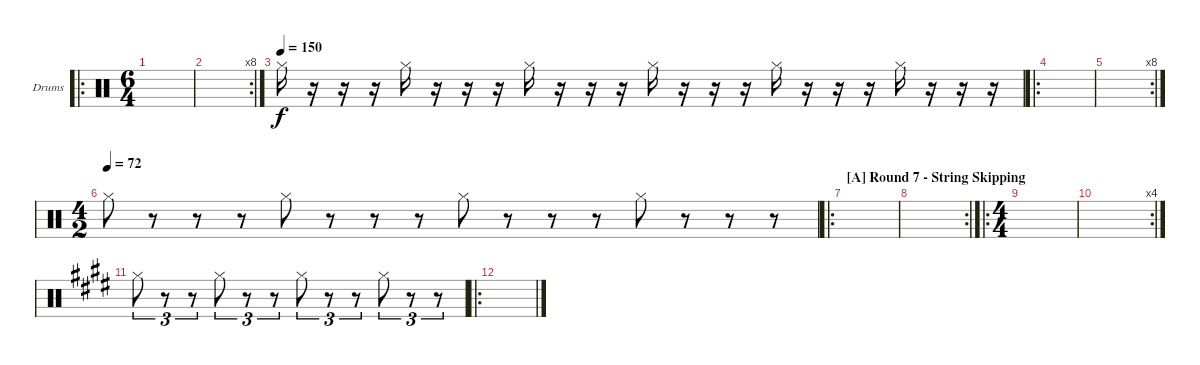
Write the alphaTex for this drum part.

\defaultSystemsLayout 4
\bracketExtendMode groupsimilarinstruments
\firstSystemTrackNameOrientation horizontal
\otherSystemsTrackNameOrientation horizontal
\track ("Drumkit" "Drums") {instrument percussion}
\staff {score}
\articulation defaults
\ro
\ts (6 4)
\tempo (120 hide)
\clef neutral
\scale
0.343284
\ks c
|
\rc 8
\scale
0.313433 |
\tempo (150)
"Hi-Hat (closed)".16{beam split} r.16{beam split} r.16{beam split} r.16{beam split} "Hi-Hat (closed)".16{beam split} r.16{beam split} r.16{beam split} r.16{beam split} "Hi-Hat (closed)".16{beam split} r.16{beam split} r.16{beam split} r.16{beam split} "Hi-Hat (closed)".16{beam split} r.16{beam split} r.16{beam split} r.16{beam split} "Hi-Hat (closed)".16{beam split} r.16{beam split} r.16{beam split} r.16{beam split} "Hi-Hat (closed)".16{beam split} r.16{beam split} r.16{beam split} r.16{beam split} |
\ro
\tempo (150 hide)
\scale
0.343284 |
\rc 8
\scale
0.269231 |
\ts (4 2)
\tempo 72
\scale
0.435897 "Hi-Hat (closed)".8 r.8 r.8 r.8 "Hi-Hat (closed)".8 r.8 r.8 r.8 "Hi-Hat (closed)".8 r.8 r.8 r.8 "Hi-Hat (closed)".8 r.8 r.8 r.8 |
\ro
\section ("A" "Round 7 - String Skipping")
\tempo (72 hide)
\scale
0.294872 |
\rc 2
\scale
0.2625 |
\ro
\ts (4 4)
\scale
0.475 |
\rc 4
\scale
0.2625 |
\scale
0.46383
\ks e "Hi-Hat (closed)".8{tu (3 2)}
r.8{tu (3 2)} r.8{tu (3 2)} "Hi-Hat (closed)".8{tu (3 2)} r.8{tu (3 2)} r.8{tu (3 2)} "Hi-Hat (closed)".8{tu (3 2)} r.8{tu (3 2)} r.8{tu (3 2)} "Hi-Hat (closed)".8{tu (3 2)} r.8{tu (3 2)} r.8{tu (3 2)} |
\ro
\scale
0.293617 |
\scale
0.242553 |
\scale
0.333333 |
\scale
0.333333 |
\scale
0.333333
